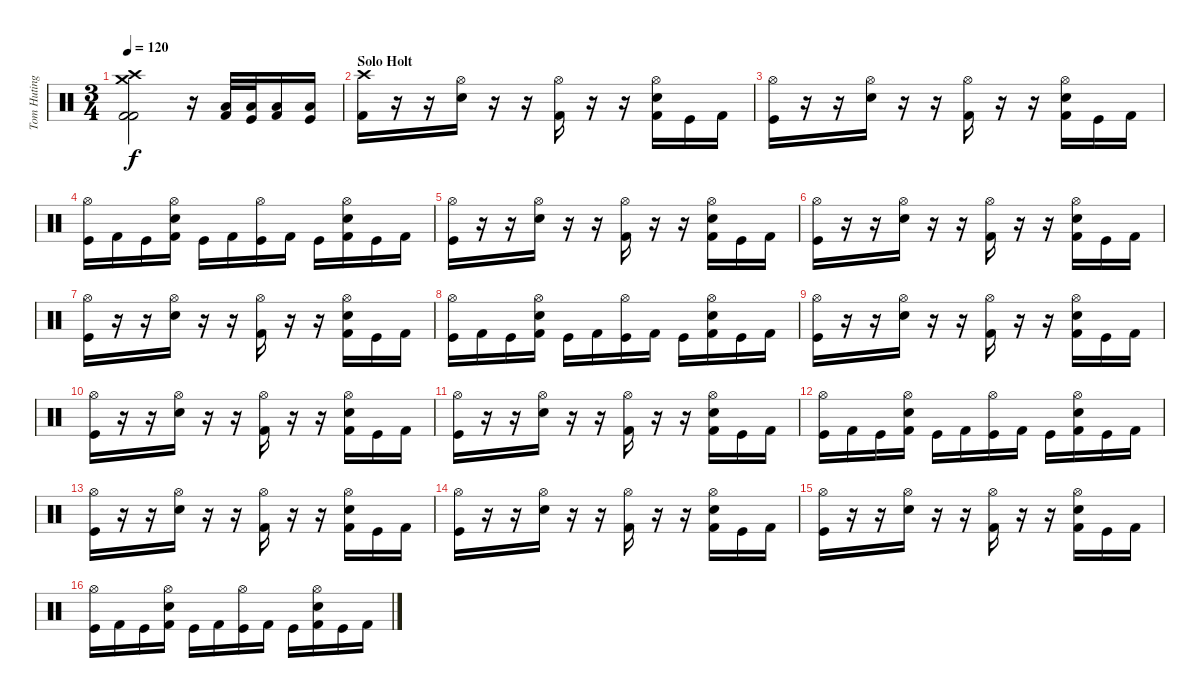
\track ("Tom Huting" "Tom Huting") {instrument percussion}
\staff {score}
\articulation defaults
\ts (3 4)
\tempo 120
\clef neutral
\ks c
("Kick (hit) 2" "Kick (hit) 2" "Crash high (hit)" "Crash medium (hit)").2{dy f} r.16 ("Kick (hit) 2" "Low Tom (hit)").32 ("Kick (hit)" "Low Tom (hit)").32 ("Kick (hit) 2" "Low Tom (hit)").16 ("Kick (hit)" "Low Tom (hit)").16 |
\section ("" "Solo Holt")
("Kick (hit) 2" "Crash high (hit)").16 r.16 r.16 ("Snare (hit) 2" "Hi-Hat (open)").16 r.16 r.16 ("Kick (hit) 2" "Hi-Hat (open)").16 r.16 r.16 ("Kick (hit) 2" "Snare (hit) 2" "Hi-Hat (open)").16 "Kick (hit)".16 "Kick (hit) 2".16 |
("Kick (hit)" "Hi-Hat (open)").16 r.16 r.16 ("Snare (hit) 2" "Hi-Hat (open)").16 r.16 r.16 ("Kick (hit) 2" "Hi-Hat (open)").16 r.16 r.16 ("Kick (hit) 2" "Snare (hit) 2" "Hi-Hat (open)").16 "Kick (hit)".16 "Kick (hit) 2".16 |
("Kick (hit)" "Hi-Hat (open)").16 "Kick (hit) 2".16 "Kick (hit)".16 ("Kick (hit) 2" "Snare (hit) 2" "Hi-Hat (open)").16 "Kick (hit)".16 "Kick (hit) 2".16 ("Kick (hit)" "Hi-Hat (open)").16 "Kick (hit) 2".16 "Kick (hit)".16 ("Kick (hit) 2" "Snare (hit) 2" "Hi-Hat (open)").16 "Kick (hit)".16 "Kick (hit) 2".16 |
("Kick (hit)" "Hi-Hat (open)").16 r.16 r.16 ("Snare (hit) 2" "Hi-Hat (open)").16 r.16 r.16 ("Kick (hit) 2" "Hi-Hat (open)").16 r.16 r.16 ("Kick (hit) 2" "Snare (hit) 2" "Hi-Hat (open)").16 "Kick (hit)".16 "Kick (hit) 2".16 |
("Kick (hit)" "Hi-Hat (open)").16 r.16 r.16 ("Snare (hit) 2" "Hi-Hat (open)").16 r.16 r.16 ("Kick (hit) 2" "Hi-Hat (open)").16 r.16 r.16 ("Kick (hit) 2" "Snare (hit) 2" "Hi-Hat (open)").16 "Kick (hit)".16 "Kick (hit) 2".16 |
("Kick (hit)" "Hi-Hat (open)").16 r.16 r.16 ("Snare (hit) 2" "Hi-Hat (open)").16 r.16 r.16 ("Kick (hit) 2" "Hi-Hat (open)").16 r.16 r.16 ("Kick (hit) 2" "Snare (hit) 2" "Hi-Hat (open)").16 "Kick (hit)".16 "Kick (hit) 2".16 |
("Kick (hit)" "Hi-Hat (open)").16 "Kick (hit) 2".16 "Kick (hit)".16 ("Kick (hit) 2" "Snare (hit) 2" "Hi-Hat (open)").16 "Kick (hit)".16 "Kick (hit) 2".16 ("Kick (hit)" "Hi-Hat (open)").16 "Kick (hit) 2".16 "Kick (hit)".16 ("Kick (hit) 2" "Snare (hit) 2" "Hi-Hat (open)").16 "Kick (hit)".16 "Kick (hit) 2".16 |
("Kick (hit)" "Hi-Hat (open)").16 r.16 r.16 ("Snare (hit) 2" "Hi-Hat (open)").16 r.16 r.16 ("Kick (hit) 2" "Hi-Hat (open)").16 r.16 r.16 ("Kick (hit) 2" "Snare (hit) 2" "Hi-Hat (open)").16 "Kick (hit)".16 "Kick (hit) 2".16 |
("Kick (hit)" "Hi-Hat (open)").16 r.16 r.16 ("Snare (hit) 2" "Hi-Hat (open)").16 r.16 r.16 ("Kick (hit) 2" "Hi-Hat (open)").16 r.16 r.16 ("Kick (hit) 2" "Snare (hit) 2" "Hi-Hat (open)").16 "Kick (hit)".16 "Kick (hit) 2".16 |
("Kick (hit)" "Hi-Hat (open)").16 r.16 r.16 ("Snare (hit) 2" "Hi-Hat (open)").16 r.16 r.16 ("Kick (hit) 2" "Hi-Hat (open)").16 r.16 r.16 ("Kick (hit) 2" "Snare (hit) 2" "Hi-Hat (open)").16 "Kick (hit)".16 "Kick (hit) 2".16 |
("Kick (hit)" "Hi-Hat (open)").16 "Kick (hit) 2".16 "Kick (hit)".16 ("Kick (hit) 2" "Snare (hit) 2" "Hi-Hat (open)").16 "Kick (hit)".16 "Kick (hit) 2".16 ("Kick (hit)" "Hi-Hat (open)").16 "Kick (hit) 2".16 "Kick (hit)".16 ("Kick (hit) 2" "Snare (hit) 2" "Hi-Hat (open)").16 "Kick (hit)".16 "Kick (hit) 2".16 |
("Kick (hit)" "Hi-Hat (open)").16 r.16 r.16 ("Snare (hit) 2" "Hi-Hat (open)").16 r.16 r.16 ("Kick (hit) 2" "Hi-Hat (open)").16 r.16 r.16 ("Kick (hit) 2" "Snare (hit) 2" "Hi-Hat (open)").16 "Kick (hit)".16 "Kick (hit) 2".16 |
("Kick (hit)" "Hi-Hat (open)").16 r.16 r.16 ("Snare (hit) 2" "Hi-Hat (open)").16 r.16 r.16 ("Kick (hit) 2" "Hi-Hat (open)").16 r.16 r.16 ("Kick (hit) 2" "Snare (hit) 2" "Hi-Hat (open)").16 "Kick (hit)".16 "Kick (hit) 2".16 |
("Kick (hit)" "Hi-Hat (open)").16 r.16 r.16 ("Snare (hit) 2" "Hi-Hat (open)").16 r.16 r.16 ("Kick (hit) 2" "Hi-Hat (open)").16 r.16 r.16 ("Kick (hit) 2" "Snare (hit) 2" "Hi-Hat (open)").16 "Kick (hit)".16 "Kick (hit) 2".16 |
("Kick (hit)" "Hi-Hat (open)").16 "Kick (hit) 2".16 "Kick (hit)".16 ("Kick (hit) 2" "Snare (hit) 2" "Hi-Hat (open)").16 "Kick (hit)".16 "Kick (hit) 2".16 ("Kick (hit)" "Hi-Hat (open)").16 "Kick (hit) 2".16 "Kick (hit)".16 ("Kick (hit) 2" "Snare (hit) 2" "Hi-Hat (open)").16 "Kick (hit)".16 "Kick (hit) 2".16
